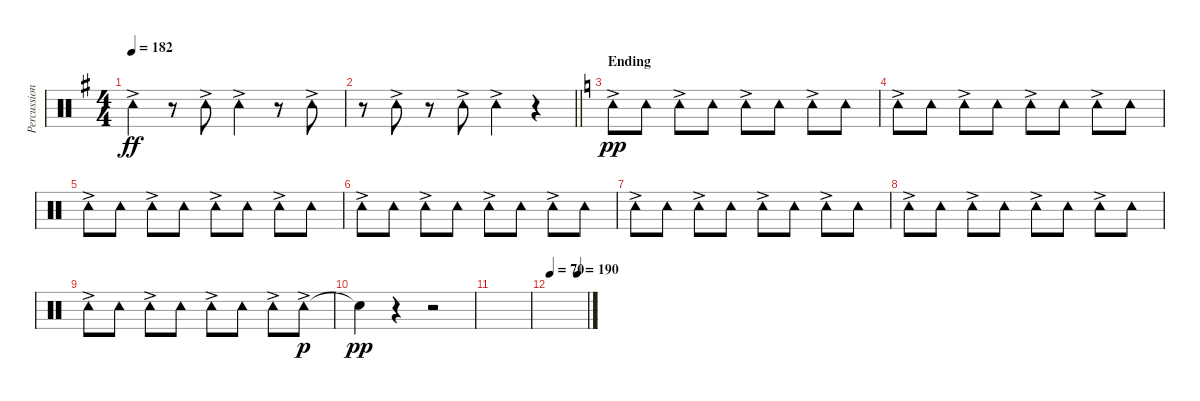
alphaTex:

\track ("Percussion (Tainaka Ritsu)" "Percussion") {instrument percussion}
\staff {score}
\articulation defaults
\ts (4 4)
\tempo 182
\clef neutral
\ks g "Tambourine (hit)"{ac}.4{dy ff}
r.8 "Tambourine (hit)"{ac}.8 "Tambourine (hit)"{ac}.4 r.8 "Tambourine (hit)"{ac}.8 |
\barLineRight lightlight
r.8 "Tambourine (hit)"{ac}.8 r.8 "Tambourine (hit)"{ac}.8 "Tambourine (hit)"{ac}.4 r.4 |
\section ("" "Ending")
\ks c "Tambourine (hit)"{ac}.8{dy pp} "Tambourine (hit)".8 "Tambourine (hit)"{ac}.8 "Tambourine (hit)".8 "Tambourine (hit)"{ac}.8 "Tambourine (hit)".8 "Tambourine (hit)"{ac}.8 "Tambourine (hit)".8
|
"Tambourine (hit)"{ac}.8 "Tambourine (hit)".8 "Tambourine (hit)"{ac}.8 "Tambourine (hit)".8 "Tambourine (hit)"{ac}.8 "Tambourine (hit)".8 "Tambourine (hit)"{ac}.8 "Tambourine (hit)".8 |
"Tambourine (hit)"{ac}.8 "Tambourine (hit)".8 "Tambourine (hit)"{ac}.8 "Tambourine (hit)".8 "Tambourine (hit)"{ac}.8 "Tambourine (hit)".8 "Tambourine (hit)"{ac}.8 "Tambourine (hit)".8 |
"Tambourine (hit)"{ac}.8 "Tambourine (hit)".8 "Tambourine (hit)"{ac}.8 "Tambourine (hit)".8 "Tambourine (hit)"{ac}.8 "Tambourine (hit)".8 "Tambourine (hit)"{ac}.8 "Tambourine (hit)".8 |
"Tambourine (hit)"{ac}.8 "Tambourine (hit)".8 "Tambourine (hit)"{ac}.8 "Tambourine (hit)".8 "Tambourine (hit)"{ac}.8 "Tambourine (hit)".8 "Tambourine (hit)"{ac}.8 "Tambourine (hit)".8 |
"Tambourine (hit)"{ac}.8 "Tambourine (hit)".8 "Tambourine (hit)"{ac}.8 "Tambourine (hit)".8 "Tambourine (hit)"{ac}.8 "Tambourine (hit)".8 "Tambourine (hit)"{ac}.8 "Tambourine (hit)".8 |
"Tambourine (hit)"{ac}.8 "Tambourine (hit)".8 "Tambourine (hit)"{ac}.8 "Tambourine (hit)".8 "Tambourine (hit)"{ac}.8 "Tambourine (hit)".8 "Tambourine (hit)"{ac}.8 "Tambourine (hit)"{ac}.8{dy p} |
"Snare (hit)"{t}.4{dy pp} r.4 r.2 |
|
\tempo 70
\tempo (190 0.75)
